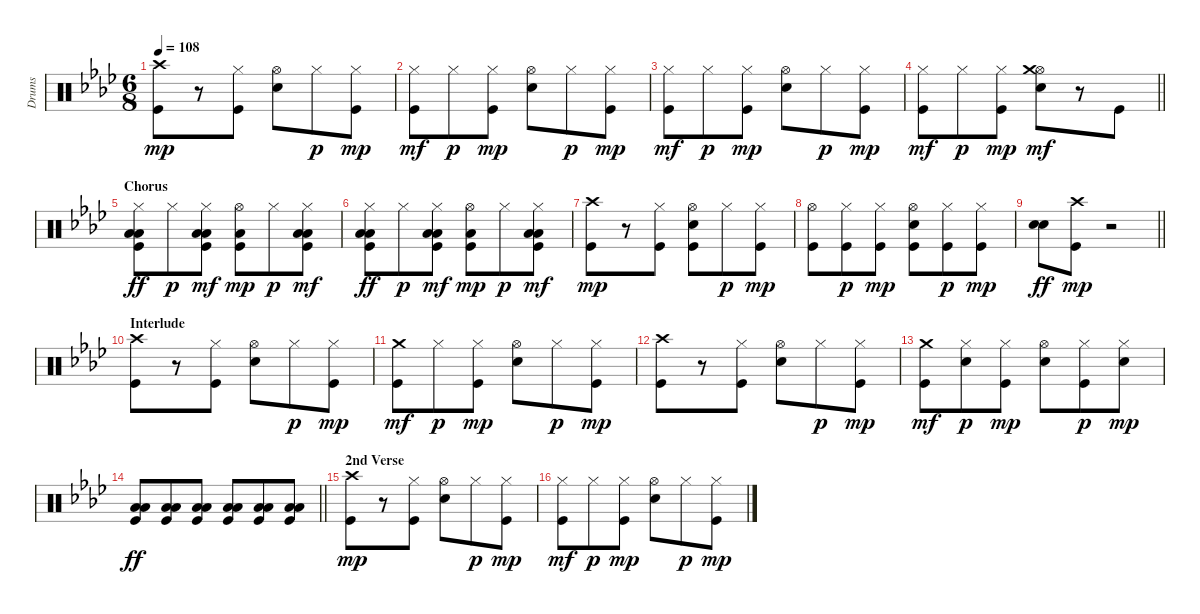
\track ("Drums" "Drums") {instrument percussion}
\staff {score}
\articulation defaults
\ts (6 8)
\tempo 108
\clef neutral
\ks ab
("Kick (hit)" "Crash high (hit)").8{dy mp} r.8 ("Kick (hit)" "Hi-Hat (closed)").8 ("Electric Snare (hit)" "Hi-Hat (open)").8 "Hi-Hat (closed)".8{dy p} ("Kick (hit)" "Hi-Hat (closed)").8{dy mp} |
("Kick (hit)" "Hi-Hat (closed)").8{dy mf} "Hi-Hat (closed)".8{dy p} ("Kick (hit)" "Hi-Hat (closed)").8{dy mp} ("Electric Snare (hit)" "Hi-Hat (open)").8 "Hi-Hat (closed)".8{dy p} ("Kick (hit)" "Hi-Hat (closed)").8{dy mp} |
("Kick (hit)" "Hi-Hat (closed)").8{dy mf} "Hi-Hat (closed)".8{dy p} ("Kick (hit)" "Hi-Hat (closed)").8{dy mp} ("Electric Snare (hit)" "Hi-Hat (open)").8 "Hi-Hat (closed)".8{dy p} ("Kick (hit)" "Hi-Hat (closed)").8{dy mp} |
\barLineRight lightlight
("Kick (hit)" "Hi-Hat (closed)").8{dy mf} "Hi-Hat (closed)".8{dy p} ("Kick (hit)" "Hi-Hat (closed)").8{dy mp} ("Electric Snare (hit)" "Hi-Hat (open)" "Crash medium (hit)").8{dy mf} r.8 "Kick (hit)".8 |
\section ("" "Chorus")
("Kick (hit)" "Low Floor Tom (hit)" "Hi-Hat (closed)" "Low Tom (hit)").8{dy ff} "Hi-Hat (closed)".8{dy p} ("Kick (hit)" "Low Floor Tom (hit)" "Hi-Hat (closed)" "Low Tom (hit)").8{dy mf} ("Kick (hit)" "Low Floor Tom (hit)" "Hi-Hat (open)").8{dy mp} "Hi-Hat (closed)".8{dy p} ("Kick (hit)" "Low Floor Tom (hit)" "Hi-Hat (closed)" "Low Tom (hit)").8{dy mf} |
("Kick (hit)" "Low Floor Tom (hit)" "Hi-Hat (closed)" "Low Tom (hit)").8{dy ff} "Hi-Hat (closed)".8{dy p} ("Kick (hit)" "Low Floor Tom (hit)" "Hi-Hat (closed)" "Low Tom (hit)").8{dy mf} ("Kick (hit)" "Low Floor Tom (hit)" "Hi-Hat (open)").8{dy mp} "Hi-Hat (closed)".8{dy p} ("Kick (hit)" "Low Floor Tom (hit)" "Hi-Hat (closed)" "Low Tom (hit)").8{dy mf} |
("Kick (hit)" "Crash high (hit)").8{dy mp} r.8 ("Kick (hit)" "Hi-Hat (closed)").8 ("Kick (hit)" "Electric Snare (hit)" "Hi-Hat (open)").8 "Hi-Hat (closed)".8{dy p} ("Kick (hit)" "Hi-Hat (closed)").8{dy mp} |
("Kick (hit)" "Hi-Hat (open)").8 ("Kick (hit)" "Hi-Hat (closed)").8{dy p} ("Kick (hit)" "Hi-Hat (closed)").8{dy mp} ("Kick (hit)" "Electric Snare (hit)" "Hi-Hat (open)").8 ("Kick (hit)" "Hi-Hat (closed)").8{dy p} ("Kick (hit)" "Hi-Hat (closed)").8{dy mp} |
\barLineRight lightlight
("Electric Snare (hit)" "Electric Snare (hit)").8{dy ff} ("Kick (hit)" "Crash high (hit)").8{dy mp} r.2 |
\section ("" "Interlude")
("Kick (hit)" "Crash high (hit)").8 r.8 ("Kick (hit)" "Hi-Hat (closed)").8 ("Electric Snare (hit)" "Hi-Hat (open)").8 "Hi-Hat (closed)".8{dy p} ("Kick (hit)" "Hi-Hat (closed)").8{dy mp} |
("Kick (hit)" "Crash medium (hit)").8{dy mf} "Hi-Hat (closed)".8{dy p} ("Kick (hit)" "Hi-Hat (closed)").8{dy mp} ("Electric Snare (hit)" "Hi-Hat (open)").8 "Hi-Hat (closed)".8{dy p} ("Kick (hit)" "Hi-Hat (closed)").8{dy mp} |
("Kick (hit)" "Crash high (hit)").8 r.8 ("Kick (hit)" "Hi-Hat (closed)").8 ("Electric Snare (hit)" "Hi-Hat (open)").8 "Hi-Hat (closed)".8{dy p} ("Kick (hit)" "Hi-Hat (closed)").8{dy mp} |
("Kick (hit)" "Crash medium (hit)").8{dy mf} ("Electric Snare (hit)" "Hi-Hat (closed)").8{dy p} ("Kick (hit)" "Hi-Hat (closed)").8{dy mp} ("Electric Snare (hit)" "Hi-Hat (open)").8 ("Kick (hit)" "Hi-Hat (closed)").8{dy p} ("Electric Snare (hit)" "Hi-Hat (closed)").8{dy mp} |
\barLineRight lightlight
("Kick (hit)" "Low Floor Tom (hit)" "Low Tom (hit)").8{dy ff} ("Kick (hit)" "Low Floor Tom (hit)" "Low Tom (hit)").8 ("Kick (hit)" "Low Floor Tom (hit)" "Low Tom (hit)").8 ("Kick (hit)" "Low Floor Tom (hit)" "Low Tom (hit)").8 ("Kick (hit)" "Low Floor Tom (hit)" "Low Tom (hit)").8 ("Kick (hit)" "Low Floor Tom (hit)" "Low Tom (hit)").8 |
\section ("" "2nd Verse")
("Kick (hit)" "Crash high (hit)").8{dy mp} r.8 ("Kick (hit)" "Hi-Hat (closed)").8 ("Electric Snare (hit)" "Hi-Hat (open)").8 "Hi-Hat (closed)".8{dy p} ("Kick (hit)" "Hi-Hat (closed)").8{dy mp} |
("Kick (hit)" "Hi-Hat (closed)").8{dy mf} "Hi-Hat (closed)".8{dy p} ("Kick (hit)" "Hi-Hat (closed)").8{dy mp} ("Electric Snare (hit)" "Hi-Hat (open)").8 "Hi-Hat (closed)".8{dy p} ("Kick (hit)" "Hi-Hat (closed)").8{dy mp}
